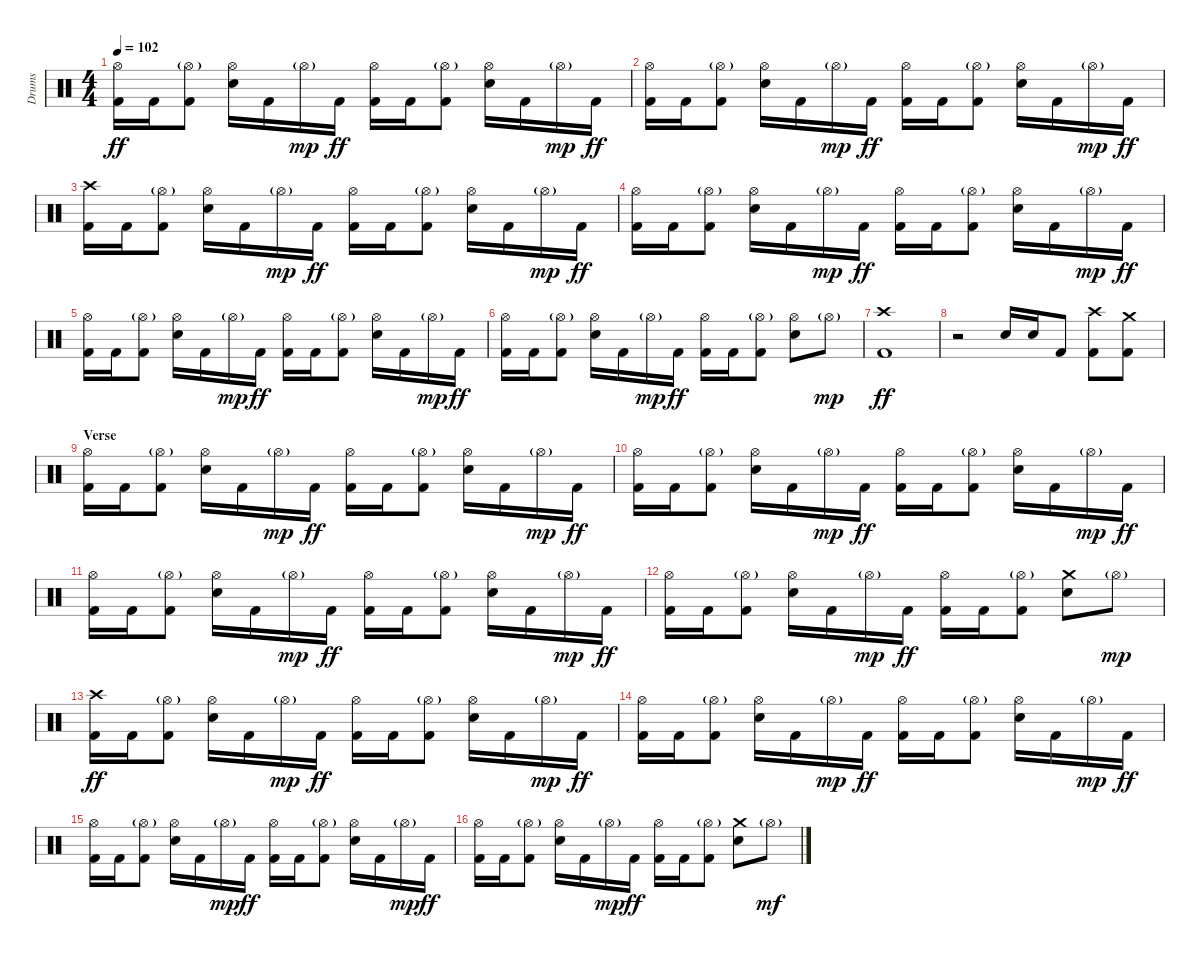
\track ("Drums" "Drums") {instrument percussion}
\staff {score}
\articulation defaults
\ts (4 4)
\tempo 102
\clef neutral
\ks c
("Hi-Hat (open)" "Kick (hit) 2").16{dy ff} "Kick (hit) 2".16 ("Hi-Hat (open)"{g} "Kick (hit) 2").8 ("Hi-Hat (open)" "Electric Snare (hit)").16 "Kick (hit) 2".16 "Hi-Hat (open)"{g}.16{dy mp} "Kick (hit) 2".16{dy ff} ("Hi-Hat (open)" "Kick (hit) 2").16 "Kick (hit) 2".16 ("Hi-Hat (open)"{g} "Kick (hit) 2").8 ("Hi-Hat (open)" "Electric Snare (hit)").16 "Kick (hit) 2".16 "Hi-Hat (open)"{g}.16{dy mp} "Kick (hit) 2".16{dy ff} |
("Hi-Hat (open)" "Kick (hit) 2").16 "Kick (hit) 2".16 ("Hi-Hat (open)"{g} "Kick (hit) 2").8 ("Hi-Hat (open)" "Electric Snare (hit)").16 "Kick (hit) 2".16 "Hi-Hat (open)"{g}.16{dy mp} "Kick (hit) 2".16{dy ff} ("Hi-Hat (open)" "Kick (hit) 2").16 "Kick (hit) 2".16 ("Hi-Hat (open)"{g} "Kick (hit) 2").8 ("Hi-Hat (open)" "Electric Snare (hit)").16 "Kick (hit) 2".16 "Hi-Hat (open)"{g}.16{dy mp} "Kick (hit) 2".16{dy ff} |
("Crash high (hit)" "Kick (hit) 2").16 "Kick (hit) 2".16 ("Hi-Hat (open)"{g} "Kick (hit) 2").8 ("Hi-Hat (open)" "Electric Snare (hit)").16 "Kick (hit) 2".16 "Hi-Hat (open)"{g}.16{dy mp} "Kick (hit) 2".16{dy ff} ("Hi-Hat (open)" "Kick (hit) 2").16 "Kick (hit) 2".16 ("Hi-Hat (open)"{g} "Kick (hit) 2").8 ("Hi-Hat (open)" "Electric Snare (hit)").16 "Kick (hit) 2".16 "Hi-Hat (open)"{g}.16{dy mp} "Kick (hit) 2".16{dy ff} |
("Hi-Hat (open)" "Kick (hit) 2").16 "Kick (hit) 2".16 ("Hi-Hat (open)"{g} "Kick (hit) 2").8 ("Hi-Hat (open)" "Electric Snare (hit)").16 "Kick (hit) 2".16 "Hi-Hat (open)"{g}.16{dy mp} "Kick (hit) 2".16{dy ff} ("Hi-Hat (open)" "Kick (hit) 2").16 "Kick (hit) 2".16 ("Hi-Hat (open)"{g} "Kick (hit) 2").8 ("Hi-Hat (open)" "Electric Snare (hit)").16 "Kick (hit) 2".16 "Hi-Hat (open)"{g}.16{dy mp} "Kick (hit) 2".16{dy ff} |
("Hi-Hat (open)" "Kick (hit) 2").16 "Kick (hit) 2".16 ("Hi-Hat (open)"{g} "Kick (hit) 2").8 ("Hi-Hat (open)" "Electric Snare (hit)").16 "Kick (hit) 2".16 "Hi-Hat (open)"{g}.16{dy mp} "Kick (hit) 2".16{dy ff} ("Hi-Hat (open)" "Kick (hit) 2").16 "Kick (hit) 2".16 ("Hi-Hat (open)"{g} "Kick (hit) 2").8 ("Hi-Hat (open)" "Electric Snare (hit)").16 "Kick (hit) 2".16 "Hi-Hat (open)"{g}.16{dy mp} "Kick (hit) 2".16{dy ff} |
("Hi-Hat (open)" "Kick (hit) 2").16 "Kick (hit) 2".16 ("Hi-Hat (open)"{g} "Kick (hit) 2").8 ("Hi-Hat (open)" "Electric Snare (hit)").16 "Kick (hit) 2".16 "Hi-Hat (open)"{g}.16{dy mp} "Kick (hit) 2".16{dy ff} ("Hi-Hat (open)" "Kick (hit) 2").16 "Kick (hit) 2".16 ("Hi-Hat (open)"{g} "Kick (hit) 2").8 ("Hi-Hat (open)" "Electric Snare (hit)").8 "Hi-Hat (open)"{g}.8{dy mp} |
("Crash high (hit)" "Kick (hit) 2").1{dy ff} |
r.2 "Electric Snare (hit)".16 "Electric Snare (hit)".16 "Kick (hit) 2".8 ("Crash high (hit)" "Kick (hit) 2").8 ("Crash medium (hit)" "Kick (hit) 2").8 |
\section ("" "Verse")
("Hi-Hat (open)" "Kick (hit) 2").16 "Kick (hit) 2".16 ("Hi-Hat (open)"{g} "Kick (hit) 2").8 ("Hi-Hat (open)" "Electric Snare (hit)").16 "Kick (hit) 2".16 "Hi-Hat (open)"{g}.16{dy mp} "Kick (hit) 2".16{dy ff} ("Hi-Hat (open)" "Kick (hit) 2").16 "Kick (hit) 2".16 ("Hi-Hat (open)"{g} "Kick (hit) 2").8 ("Hi-Hat (open)" "Electric Snare (hit)").16 "Kick (hit) 2".16 "Hi-Hat (open)"{g}.16{dy mp} "Kick (hit) 2".16{dy ff} |
("Hi-Hat (open)" "Kick (hit) 2").16 "Kick (hit) 2".16 ("Hi-Hat (open)"{g} "Kick (hit) 2").8 ("Hi-Hat (open)" "Electric Snare (hit)").16 "Kick (hit) 2".16 "Hi-Hat (open)"{g}.16{dy mp} "Kick (hit) 2".16{dy ff} ("Hi-Hat (open)" "Kick (hit) 2").16 "Kick (hit) 2".16 ("Hi-Hat (open)"{g} "Kick (hit) 2").8 ("Hi-Hat (open)" "Electric Snare (hit)").16 "Kick (hit) 2".16 "Hi-Hat (open)"{g}.16{dy mp} "Kick (hit) 2".16{dy ff} |
("Hi-Hat (open)" "Kick (hit) 2").16 "Kick (hit) 2".16 ("Hi-Hat (open)"{g} "Kick (hit) 2").8 ("Hi-Hat (open)" "Electric Snare (hit)").16 "Kick (hit) 2".16 "Hi-Hat (open)"{g}.16{dy mp} "Kick (hit) 2".16{dy ff} ("Hi-Hat (open)" "Kick (hit) 2").16 "Kick (hit) 2".16 ("Hi-Hat (open)"{g} "Kick (hit) 2").8 ("Hi-Hat (open)" "Electric Snare (hit)").16 "Kick (hit) 2".16 "Hi-Hat (open)"{g}.16{dy mp} "Kick (hit) 2".16{dy ff} |
("Hi-Hat (open)" "Kick (hit) 2").16 "Kick (hit) 2".16 ("Hi-Hat (open)"{g} "Kick (hit) 2").8 ("Hi-Hat (open)" "Electric Snare (hit)").16 "Kick (hit) 2".16 "Hi-Hat (open)"{g}.16{dy mp} "Kick (hit) 2".16{dy ff} ("Hi-Hat (open)" "Kick (hit) 2").16 "Kick (hit) 2".16 ("Hi-Hat (open)"{g} "Kick (hit) 2").8 ("Crash medium (hit)" "Electric Snare (hit)").8 "Hi-Hat (open)"{g}.8{dy mp} |
("Crash high (hit)" "Kick (hit) 2").16{dy ff} "Kick (hit) 2".16 ("Hi-Hat (open)"{g} "Kick (hit) 2").8 ("Hi-Hat (open)" "Electric Snare (hit)").16 "Kick (hit) 2".16 "Hi-Hat (open)"{g}.16{dy mp} "Kick (hit) 2".16{dy ff} ("Hi-Hat (open)" "Kick (hit) 2").16 "Kick (hit) 2".16 ("Hi-Hat (open)"{g} "Kick (hit) 2").8 ("Hi-Hat (open)" "Electric Snare (hit)").16 "Kick (hit) 2".16 "Hi-Hat (open)"{g}.16{dy mp} "Kick (hit) 2".16{dy ff} |
("Hi-Hat (open)" "Kick (hit) 2").16 "Kick (hit) 2".16 ("Hi-Hat (open)"{g} "Kick (hit) 2").8 ("Hi-Hat (open)" "Electric Snare (hit)").16 "Kick (hit) 2".16 "Hi-Hat (open)"{g}.16{dy mp} "Kick (hit) 2".16{dy ff} ("Hi-Hat (open)" "Kick (hit) 2").16 "Kick (hit) 2".16 ("Hi-Hat (open)"{g} "Kick (hit) 2").8 ("Hi-Hat (open)" "Electric Snare (hit)").16 "Kick (hit) 2".16 "Hi-Hat (open)"{g}.16{dy mp} "Kick (hit) 2".16{dy ff} |
("Hi-Hat (open)" "Kick (hit) 2").16 "Kick (hit) 2".16 ("Hi-Hat (open)"{g} "Kick (hit) 2").8 ("Hi-Hat (open)" "Electric Snare (hit)").16 "Kick (hit) 2".16 "Hi-Hat (open)"{g}.16{dy mp} "Kick (hit) 2".16{dy ff} ("Hi-Hat (open)" "Kick (hit) 2").16 "Kick (hit) 2".16 ("Hi-Hat (open)"{g} "Kick (hit) 2").8 ("Hi-Hat (open)" "Electric Snare (hit)").16 "Kick (hit) 2".16 "Hi-Hat (open)"{g}.16{dy mp} "Kick (hit) 2".16{dy ff} |
("Hi-Hat (open)" "Kick (hit) 2").16 "Kick (hit) 2".16 ("Hi-Hat (open)"{g} "Kick (hit) 2").8 ("Hi-Hat (open)" "Electric Snare (hit)").16 "Kick (hit) 2".16 "Hi-Hat (open)"{g}.16{dy mp} "Kick (hit) 2".16{dy ff} ("Hi-Hat (open)" "Kick (hit) 2").16 "Kick (hit) 2".16 ("Hi-Hat (open)"{g} "Kick (hit) 2").8 ("Crash medium (hit)" "Electric Snare (hit)").8 "Hi-Hat (open)"{g}.8{dy mf}
